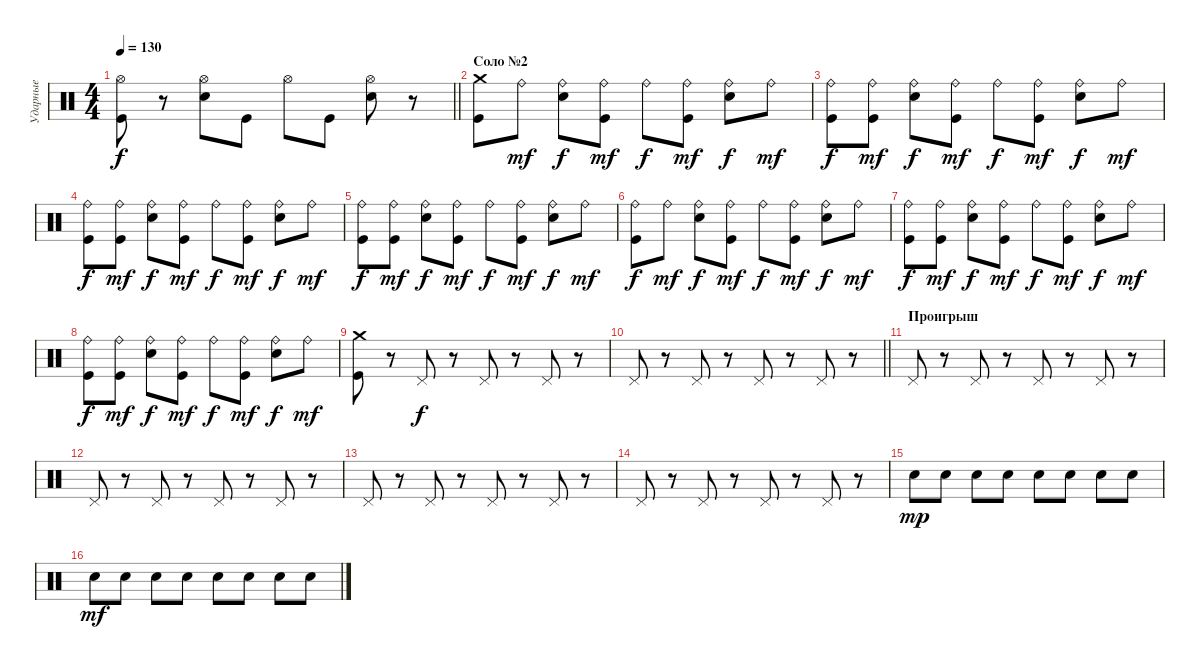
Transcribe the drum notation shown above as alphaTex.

\track ("Ударные" "Ударные") {instrument percussion}
\staff {score}
\articulation defaults
\ts (4 4)
\tempo 130
\clef neutral
\barLineRight lightlight
\ks c
("Hi-Hat (open)" "Kick (hit)").8{dy f} r.8 ("Hi-Hat (open)" "Electric Snare (hit)").8 "Kick (hit)".8 "Hi-Hat (open)".8 "Kick (hit)".8 ("Hi-Hat (open)" "Electric Snare (hit)").8 r.8 |
\section ("" "Соло №2")
("Crash medium (hit)" "Kick (hit)").8 "Ride (bell)".8{dy mf} ("Ride (bell)" "Electric Snare (hit)").8{dy f} ("Ride (bell)" "Kick (hit)").8{dy mf} "Ride (bell)".8{dy f} ("Ride (bell)" "Kick (hit)").8{dy mf} ("Ride (bell)" "Electric Snare (hit)").8{dy f} "Ride (bell)".8{dy mf} |
("Ride (bell)" "Kick (hit)").8{dy f} ("Ride (bell)" "Kick (hit)").8{dy mf} ("Ride (bell)" "Electric Snare (hit)").8{dy f} ("Ride (bell)" "Kick (hit)").8{dy mf} "Ride (bell)".8{dy f} ("Ride (bell)" "Kick (hit)").8{dy mf} ("Ride (bell)" "Electric Snare (hit)").8{dy f} "Ride (bell)".8{dy mf} |
("Ride (bell)" "Kick (hit)").8{dy f} ("Ride (bell)" "Kick (hit)").8{dy mf} ("Ride (bell)" "Electric Snare (hit)").8{dy f} ("Ride (bell)" "Kick (hit)").8{dy mf} "Ride (bell)".8{dy f} ("Ride (bell)" "Kick (hit)").8{dy mf} ("Ride (bell)" "Electric Snare (hit)").8{dy f} "Ride (bell)".8{dy mf} |
("Ride (bell)" "Kick (hit)").8{dy f} ("Ride (bell)" "Kick (hit)").8{dy mf} ("Ride (bell)" "Electric Snare (hit)").8{dy f} ("Ride (bell)" "Kick (hit)").8{dy mf} "Ride (bell)".8{dy f} ("Ride (bell)" "Kick (hit)").8{dy mf} ("Ride (bell)" "Electric Snare (hit)").8{dy f} "Ride (bell)".8{dy mf} |
("Ride (bell)" "Kick (hit)").8{dy f} "Ride (bell)".8{dy mf} ("Ride (bell)" "Electric Snare (hit)").8{dy f} ("Ride (bell)" "Kick (hit)").8{dy mf} "Ride (bell)".8{dy f} ("Ride (bell)" "Kick (hit)").8{dy mf} ("Ride (bell)" "Electric Snare (hit)").8{dy f} "Ride (bell)".8{dy mf} |
("Ride (bell)" "Kick (hit)").8{dy f} ("Ride (bell)" "Kick (hit)").8{dy mf} ("Ride (bell)" "Electric Snare (hit)").8{dy f} ("Ride (bell)" "Kick (hit)").8{dy mf} "Ride (bell)".8{dy f} ("Ride (bell)" "Kick (hit)").8{dy mf} ("Ride (bell)" "Electric Snare (hit)").8{dy f} "Ride (bell)".8{dy mf} |
("Ride (bell)" "Kick (hit)").8{dy f} ("Ride (bell)" "Kick (hit)").8{dy mf} ("Ride (bell)" "Electric Snare (hit)").8{dy f} ("Ride (bell)" "Kick (hit)").8{dy mf} "Ride (bell)".8{dy f} ("Ride (bell)" "Kick (hit)").8{dy mf} ("Ride (bell)" "Electric Snare (hit)").8{dy f} "Ride (bell)".8{dy mf} |
("Crash medium (hit)" "Kick (hit)").8 r.8 "Pedal Hi-Hat (hit)".8{dy f} r.8 "Pedal Hi-Hat (hit)".8 r.8 "Pedal Hi-Hat (hit)".8 r.8 |
\barLineRight lightlight "Pedal Hi-Hat (hit)".8
r.8 "Pedal Hi-Hat (hit)".8 r.8 "Pedal Hi-Hat (hit)".8 r.8 "Pedal Hi-Hat (hit)".8 r.8 |
\section ("" "Проигрыш")
"Pedal Hi-Hat (hit)".8 r.8 "Pedal Hi-Hat (hit)".8 r.8 "Pedal Hi-Hat (hit)".8 r.8 "Pedal Hi-Hat (hit)".8 r.8 |
"Pedal Hi-Hat (hit)".8 r.8 "Pedal Hi-Hat (hit)".8 r.8 "Pedal Hi-Hat (hit)".8 r.8 "Pedal Hi-Hat (hit)".8 r.8 |
"Pedal Hi-Hat (hit)".8 r.8 "Pedal Hi-Hat (hit)".8 r.8 "Pedal Hi-Hat (hit)".8 r.8 "Pedal Hi-Hat (hit)".8 r.8 |
"Pedal Hi-Hat (hit)".8 r.8 "Pedal Hi-Hat (hit)".8 r.8 "Pedal Hi-Hat (hit)".8 r.8 "Pedal Hi-Hat (hit)".8 r.8 |
"Electric Snare (hit)".8{dy mp} "Electric Snare (hit)".8 "Electric Snare (hit)".8 "Electric Snare (hit)".8 "Electric Snare (hit)".8 "Electric Snare (hit)".8 "Electric Snare (hit)".8 "Electric Snare (hit)".8 |
"Electric Snare (hit)".8{dy mf} "Electric Snare (hit)".8 "Electric Snare (hit)".8 "Electric Snare (hit)".8 "Electric Snare (hit)".8 "Electric Snare (hit)".8 "Electric Snare (hit)".8 "Electric Snare (hit)".8
